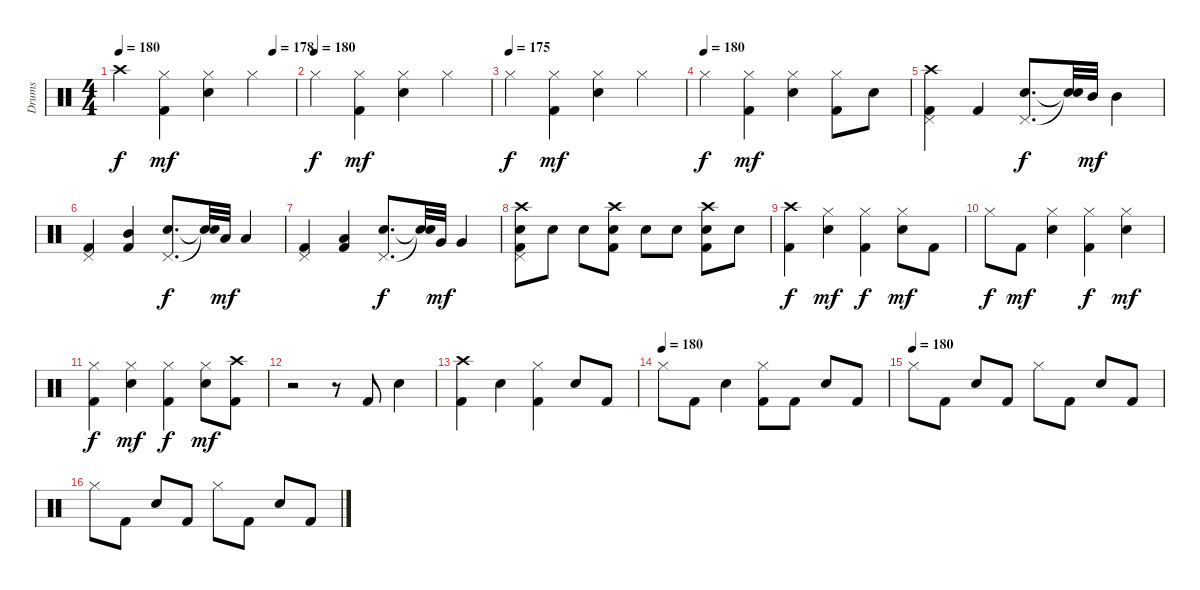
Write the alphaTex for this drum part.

\track ("Drums" "Drums") {instrument percussion}
\staff {score}
\articulation defaults
\ts (4 4)
\tempo 180
\tempo (178 0.875)
\clef neutral
\ks c "Crash high (hit)".4{dy f}
("Hi-Hat (closed)" "Kick (hit) 2").4{dy mf} ("Snare (hit) 2" "Hi-Hat (closed)").4 "Hi-Hat (closed)".4 |
\tempo (180)
"Hi-Hat (closed)".4{dy f} ("Hi-Hat (closed)" "Kick (hit) 2").4{dy mf} ("Snare (hit) 2" "Hi-Hat (closed)").4 "Hi-Hat (closed)".4 |
\tempo (175)
"Hi-Hat (closed)".4{dy f} ("Hi-Hat (closed)" "Kick (hit) 2").4{dy mf} ("Snare (hit) 2" "Hi-Hat (closed)").4 "Hi-Hat (closed)".4 |
\tempo (180)
"Hi-Hat (closed)".4{dy f} ("Hi-Hat (closed)" "Kick (hit) 2").4{dy mf} ("Snare (hit) 2" "Hi-Hat (closed)").4 ("Hi-Hat (closed)" "Kick (hit) 2").8 "Snare (hit) 2".8 |
("Crash high (hit)" "Pedal Hi-Hat (hit)" "Kick (hit) 2").4 "Kick (hit) 2".4 ("Snare (hit) 2" "Pedal Hi-Hat (hit)").8{d dy f} ("Snare (hit)"{t} "Snare (hit)"{t}).32 "Mid Tom (hit)".32{dy mf} "Mid Tom (hit)".4 |
("Pedal Hi-Hat (hit)" "Kick (hit) 2").4 ("Mid Tom (hit)" "Kick (hit) 2").4 ("Snare (hit) 2" "Pedal Hi-Hat (hit)").8{d dy f} ("Snare (hit)"{t} "Snare (hit)"{t}).32 "Low Tom (hit)".32{dy mf} "Low Tom (hit)".4 |
("Pedal Hi-Hat (hit)" "Kick (hit) 2").4 ("Low Tom (hit)" "Kick (hit) 2").4 ("Snare (hit) 2" "Pedal Hi-Hat (hit)").8{d dy f} ("Snare (hit)"{t} "Snare (hit)"{t}).32 "Very Low Tom (hit)".32{dy mf} "Very Low Tom (hit)".4 |
("Snare (hit) 2" "Crash high (hit)" "Pedal Hi-Hat (hit)" "Kick (hit) 2").8 "Snare (hit) 2".8 "Snare (hit) 2".8 ("Snare (hit) 2" "Crash high (hit)" "Kick (hit) 2").8 "Snare (hit) 2".8 "Snare (hit) 2".8 ("Snare (hit) 2" "Crash high (hit)" "Kick (hit) 2").8 "Snare (hit) 2".8 |
("Crash high (hit)" "Kick (hit) 2").4{dy f} ("Snare (hit) 2" "Hi-Hat (closed)").4{dy mf} ("Hi-Hat (closed)" "Kick (hit) 2").4{dy f} ("Snare (hit) 2" "Hi-Hat (closed)").8{dy mf} "Kick (hit) 2".8 |
"Hi-Hat (closed)".8{dy f} "Kick (hit) 2".8{dy mf} ("Snare (hit) 2" "Hi-Hat (closed)").4 ("Hi-Hat (closed)" "Kick (hit) 2").4{dy f} ("Snare (hit) 2" "Hi-Hat (closed)").4{dy mf} |
("Hi-Hat (closed)" "Kick (hit) 2").4{dy f} ("Snare (hit) 2" "Hi-Hat (closed)").4{dy mf} ("Hi-Hat (closed)" "Kick (hit) 2").4{dy f} ("Snare (hit) 2" "Hi-Hat (closed)").8{dy mf} ("Crash high (hit)" "Kick (hit) 2").8 |
r.2 r.8 "Kick (hit) 2".8 "Snare (hit) 2".4 |
("Crash high (hit)" "Kick (hit) 2").4 "Snare (hit) 2".4 ("Hi-Hat (closed)" "Kick (hit) 2").4 "Snare (hit) 2".8 "Kick (hit) 2".8 |
\tempo (180)
"Hi-Hat (closed)".8 "Kick (hit) 2".8 "Snare (hit) 2".4 ("Hi-Hat (closed)" "Kick (hit) 2").8 "Kick (hit) 2".8 "Snare (hit) 2".8 "Kick (hit) 2".8 |
\tempo (180)
"Hi-Hat (closed)".8 "Kick (hit) 2".8 "Snare (hit) 2".8 "Kick (hit) 2".8 "Hi-Hat (closed)".8 "Kick (hit) 2".8 "Snare (hit) 2".8 "Kick (hit) 2".8 |
"Hi-Hat (closed)".8 "Kick (hit) 2".8 "Snare (hit) 2".8 "Kick (hit) 2".8 "Hi-Hat (closed)".8 "Kick (hit) 2".8 "Snare (hit) 2".8 "Kick (hit) 2".8
